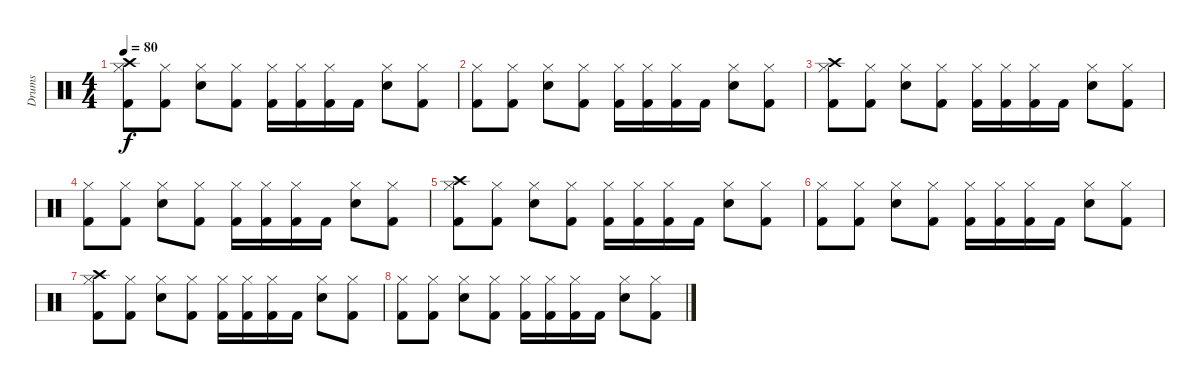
\track ("Drums" "Drums") {instrument percussion}
\staff {score}
\articulation defaults
\ts (4 4)
\tempo 80
\clef neutral
\ks c
("Crash high (hit)" "Hi-Hat (closed)" "Kick (hit) 2").8{dy f} ("Hi-Hat (closed)" "Kick (hit) 2").8 ("Hi-Hat (closed)" "Snare (hit) 2").8 ("Hi-Hat (closed)" "Kick (hit) 2").8 ("Hi-Hat (closed)" "Kick (hit) 2").16 ("Hi-Hat (closed)" "Kick (hit) 2").16 ("Hi-Hat (closed)" "Kick (hit) 2").16 "Kick (hit) 2".16 ("Hi-Hat (closed)" "Snare (hit) 2").8 ("Hi-Hat (closed)" "Kick (hit) 2").8 |
("Hi-Hat (closed)" "Kick (hit) 2").8 ("Hi-Hat (closed)" "Kick (hit) 2").8 ("Hi-Hat (closed)" "Snare (hit) 2").8 ("Hi-Hat (closed)" "Kick (hit) 2").8 ("Hi-Hat (closed)" "Kick (hit) 2").16 ("Hi-Hat (closed)" "Kick (hit) 2").16 ("Hi-Hat (closed)" "Kick (hit) 2").16 "Kick (hit) 2".16 ("Hi-Hat (closed)" "Snare (hit) 2").8 ("Hi-Hat (closed)" "Kick (hit) 2").8 |
("Crash high (hit)" "Hi-Hat (closed)" "Kick (hit) 2").8 ("Hi-Hat (closed)" "Kick (hit) 2").8 ("Hi-Hat (closed)" "Snare (hit) 2").8 ("Hi-Hat (closed)" "Kick (hit) 2").8 ("Hi-Hat (closed)" "Kick (hit) 2").16 ("Hi-Hat (closed)" "Kick (hit) 2").16 ("Hi-Hat (closed)" "Kick (hit) 2").16 "Kick (hit) 2".16 ("Hi-Hat (closed)" "Snare (hit) 2").8 ("Hi-Hat (closed)" "Kick (hit) 2").8 |
("Hi-Hat (closed)" "Kick (hit) 2").8 ("Hi-Hat (closed)" "Kick (hit) 2").8 ("Hi-Hat (closed)" "Snare (hit) 2").8 ("Hi-Hat (closed)" "Kick (hit) 2").8 ("Hi-Hat (closed)" "Kick (hit) 2").16 ("Hi-Hat (closed)" "Kick (hit) 2").16 ("Hi-Hat (closed)" "Kick (hit) 2").16 "Kick (hit) 2".16 ("Hi-Hat (closed)" "Snare (hit) 2").8 ("Hi-Hat (closed)" "Kick (hit) 2").8 |
("Crash high (hit)" "Hi-Hat (closed)" "Kick (hit) 2").8 ("Hi-Hat (closed)" "Kick (hit) 2").8 ("Hi-Hat (closed)" "Snare (hit) 2").8 ("Hi-Hat (closed)" "Kick (hit) 2").8 ("Hi-Hat (closed)" "Kick (hit) 2").16 ("Hi-Hat (closed)" "Kick (hit) 2").16 ("Hi-Hat (closed)" "Kick (hit) 2").16 "Kick (hit) 2".16 ("Hi-Hat (closed)" "Snare (hit) 2").8 ("Hi-Hat (closed)" "Kick (hit) 2").8 |
("Hi-Hat (closed)" "Kick (hit) 2").8 ("Hi-Hat (closed)" "Kick (hit) 2").8 ("Hi-Hat (closed)" "Snare (hit) 2").8 ("Hi-Hat (closed)" "Kick (hit) 2").8 ("Hi-Hat (closed)" "Kick (hit) 2").16 ("Hi-Hat (closed)" "Kick (hit) 2").16 ("Hi-Hat (closed)" "Kick (hit) 2").16 "Kick (hit) 2".16 ("Hi-Hat (closed)" "Snare (hit) 2").8 ("Hi-Hat (closed)" "Kick (hit) 2").8 |
("Crash high (hit)" "Hi-Hat (closed)" "Kick (hit) 2").8 ("Hi-Hat (closed)" "Kick (hit) 2").8 ("Hi-Hat (closed)" "Snare (hit) 2").8 ("Hi-Hat (closed)" "Kick (hit) 2").8 ("Hi-Hat (closed)" "Kick (hit) 2").16 ("Hi-Hat (closed)" "Kick (hit) 2").16 ("Hi-Hat (closed)" "Kick (hit) 2").16 "Kick (hit) 2".16 ("Hi-Hat (closed)" "Snare (hit) 2").8 ("Hi-Hat (closed)" "Kick (hit) 2").8 |
("Hi-Hat (closed)" "Kick (hit) 2").8 ("Hi-Hat (closed)" "Kick (hit) 2").8 ("Hi-Hat (closed)" "Snare (hit) 2").8 ("Hi-Hat (closed)" "Kick (hit) 2").8 ("Hi-Hat (closed)" "Kick (hit) 2").16 ("Hi-Hat (closed)" "Kick (hit) 2").16 ("Hi-Hat (closed)" "Kick (hit) 2").16 "Kick (hit) 2".16 ("Hi-Hat (closed)" "Snare (hit) 2").8 ("Hi-Hat (closed)" "Kick (hit) 2").8
